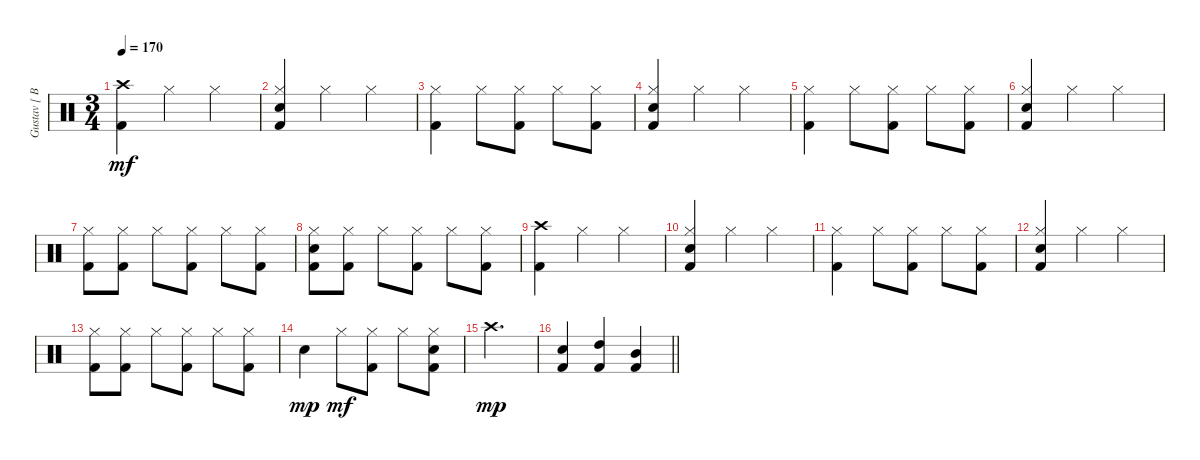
\track ("Gustav [ Batterie ]" "Gustav [ B") {instrument percussion}
\staff {score}
\articulation defaults
\ts (3 4)
\tempo 170
\clef neutral
\ks c
("Crash high (hit)" "Kick (hit) 2").4{dy mf} "Hi-Hat (closed)".4 "Hi-Hat (closed)".4 |
("Hi-Hat (closed)" "Snare (hit) 2" "Kick (hit) 2").4 "Hi-Hat (closed)".4 "Hi-Hat (closed)".4 |
("Hi-Hat (closed)" "Kick (hit) 2").4 "Hi-Hat (closed)".8 ("Hi-Hat (closed)" "Kick (hit) 2").8 "Hi-Hat (closed)".8 ("Hi-Hat (closed)" "Kick (hit) 2").8 |
("Hi-Hat (closed)" "Snare (hit) 2" "Kick (hit) 2").4 "Hi-Hat (closed)".4 "Hi-Hat (closed)".4 |
("Hi-Hat (closed)" "Kick (hit) 2").4 "Hi-Hat (closed)".8 ("Hi-Hat (closed)" "Kick (hit) 2").8 "Hi-Hat (closed)".8 ("Hi-Hat (closed)" "Kick (hit) 2").8 |
("Hi-Hat (closed)" "Snare (hit) 2" "Kick (hit) 2").4 "Hi-Hat (closed)".4 "Hi-Hat (closed)".4 |
("Hi-Hat (closed)" "Kick (hit) 2").8 ("Hi-Hat (closed)" "Kick (hit) 2").8 "Hi-Hat (closed)".8 ("Hi-Hat (closed)" "Kick (hit) 2").8 "Hi-Hat (closed)".8 ("Hi-Hat (closed)" "Kick (hit) 2").8 |
("Hi-Hat (closed)" "Snare (hit) 2" "Kick (hit) 2").8 ("Hi-Hat (closed)" "Kick (hit) 2").8 "Hi-Hat (closed)".8 ("Hi-Hat (closed)" "Kick (hit) 2").8 "Hi-Hat (closed)".8 ("Hi-Hat (closed)" "Kick (hit) 2").8 |
("Crash high (hit)" "Kick (hit) 2").4 "Hi-Hat (closed)".4 "Hi-Hat (closed)".4 |
("Hi-Hat (closed)" "Snare (hit) 2" "Kick (hit) 2").4 "Hi-Hat (closed)".4 "Hi-Hat (closed)".4 |
("Hi-Hat (closed)" "Kick (hit) 2").4 "Hi-Hat (closed)".8 ("Hi-Hat (closed)" "Kick (hit) 2").8 "Hi-Hat (closed)".8 ("Hi-Hat (closed)" "Kick (hit) 2").8 |
("Hi-Hat (closed)" "Snare (hit) 2" "Kick (hit) 2").4 "Hi-Hat (closed)".4 "Hi-Hat (closed)".4 |
("Hi-Hat (closed)" "Kick (hit) 2").8 ("Hi-Hat (closed)" "Kick (hit) 2").8 "Hi-Hat (closed)".8 ("Hi-Hat (closed)" "Kick (hit) 2").8 "Hi-Hat (closed)".8 ("Hi-Hat (closed)" "Kick (hit) 2").8 |
"Snare (hit) 2".4{dy mp} "Hi-Hat (closed)".8{dy mf} ("Hi-Hat (closed)" "Kick (hit) 2").8 "Hi-Hat (closed)".8 ("Hi-Hat (closed)" "Snare (hit) 2" "Kick (hit) 2").8 |
"Crash high (hit)".2{d dy mp} |
\barLineRight lightlight
("Snare (hit) 2" "Kick (hit) 2").4 ("High Tom (hit)" "Kick (hit) 2").4 ("Mid Tom (hit)" "Kick (hit) 2").4
